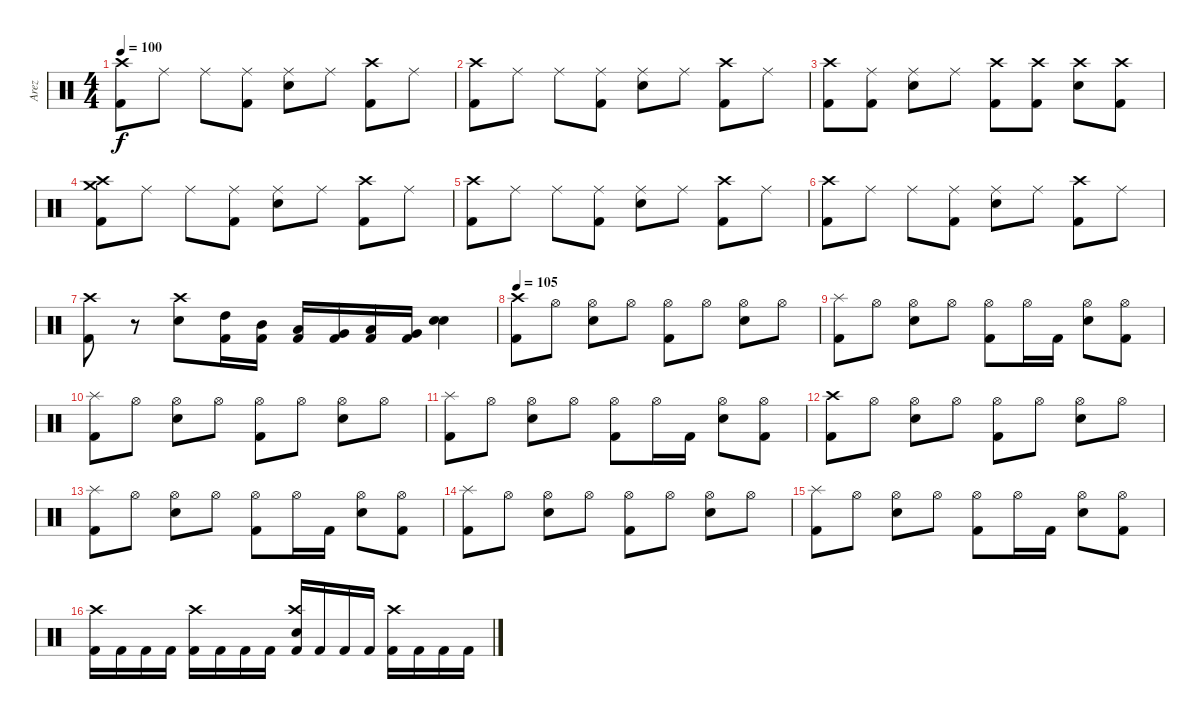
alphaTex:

\track ("Arez" "Arez") {instrument percussion}
\staff {score}
\articulation defaults
\ts (4 4)
\tempo 100
\clef neutral
\ks c
("Kick (hit) 2" "Crash high (hit)").8{dy f} "Ride (middle)".8 "Ride (middle)".8 ("Ride (middle)" "Kick (hit) 2").8 ("Electric Snare (hit)" "Ride (middle)").8 "Ride (middle)".8 ("Kick (hit) 2" "Crash high (hit)").8 "Ride (middle)".8 |
("Kick (hit) 2" "Crash high (hit)").8 "Ride (middle)".8 "Ride (middle)".8 ("Ride (middle)" "Kick (hit) 2").8 ("Electric Snare (hit)" "Ride (middle)").8 "Ride (middle)".8 ("Kick (hit) 2" "Crash high (hit)").8 "Ride (middle)".8 |
("Kick (hit) 2" "Crash high (hit)").8 ("Ride (middle)" "Kick (hit) 2").8 ("Ride (middle)" "Electric Snare (hit)").8 "Ride (middle)".8 ("Kick (hit) 2" "Crash high (hit)").8 ("Crash high (hit)" "Kick (hit) 2").8 ("Electric Snare (hit)" "Crash high (hit)").8 ("Crash high (hit)" "Kick (hit) 2").8 |
("Crash high (hit)" "Kick (hit) 2" "Crash medium (hit)").8 "Ride (middle)".8 "Ride (middle)".8 ("Ride (middle)" "Kick (hit) 2").8 ("Electric Snare (hit)" "Ride (middle)").8 "Ride (middle)".8 ("Kick (hit) 2" "Crash high (hit)").8 "Ride (middle)".8 |
("Kick (hit) 2" "Crash high (hit)").8 "Ride (middle)".8 "Ride (middle)".8 ("Ride (middle)" "Kick (hit) 2").8 ("Electric Snare (hit)" "Ride (middle)").8 "Ride (middle)".8 ("Kick (hit) 2" "Crash high (hit)").8 "Ride (middle)".8 |
("Kick (hit) 2" "Crash high (hit)").8 "Ride (middle)".8 "Ride (middle)".8 ("Ride (middle)" "Kick (hit) 2").8 ("Electric Snare (hit)" "Ride (middle)").8 "Ride (middle)".8 ("Kick (hit) 2" "Crash high (hit)").8 "Ride (middle)".8 |
("Kick (hit) 2" "Crash high (hit)").8 r.8 ("Crash high (hit)" "Electric Snare (hit)").8 ("High Tom (hit)" "Kick (hit) 2").16 ("Mid Tom (hit)" "Kick (hit) 2").16 ("Low Tom (hit)" "Kick (hit) 2").16 ("Very Low Tom (hit)" "Kick (hit) 2").16 ("Low Floor Tom (hit)" "Kick (hit) 2").16 ("Very Low Tom (hit)" "Kick (hit) 2").16 ("Electric Snare (hit)" "Electric Snare (hit)").4 |
\tempo 105
("Crash high (hit)" "Kick (hit) 2").8 "Hi-Hat (open)".8 ("Hi-Hat (open)" "Electric Snare (hit)").8 "Hi-Hat (open)".8 ("Hi-Hat (open)" "Kick (hit) 2").8 "Hi-Hat (open)".8 ("Electric Snare (hit)" "Hi-Hat (open)").8 "Hi-Hat (open)".8 |
("Splash (hit)" "Kick (hit) 2").8 "Hi-Hat (open)".8 ("Hi-Hat (open)" "Electric Snare (hit)").8 "Hi-Hat (open)".8 ("Hi-Hat (open)" "Kick (hit) 2").8 "Hi-Hat (open)".16 "Kick (hit) 2".16 ("Electric Snare (hit)" "Hi-Hat (open)").8 ("Kick (hit) 2" "Hi-Hat (open)").8 |
("Splash (hit)" "Kick (hit) 2").8 "Hi-Hat (open)".8 ("Hi-Hat (open)" "Electric Snare (hit)").8 "Hi-Hat (open)".8 ("Hi-Hat (open)" "Kick (hit) 2").8 "Hi-Hat (open)".8 ("Electric Snare (hit)" "Hi-Hat (open)").8 "Hi-Hat (open)".8 |
("Splash (hit)" "Kick (hit) 2").8 "Hi-Hat (open)".8 ("Hi-Hat (open)" "Electric Snare (hit)").8 "Hi-Hat (open)".8 ("Hi-Hat (open)" "Kick (hit) 2").8 "Hi-Hat (open)".16 "Kick (hit) 2".16 ("Electric Snare (hit)" "Hi-Hat (open)").8 ("Kick (hit) 2" "Hi-Hat (open)").8 |
("Crash high (hit)" "Kick (hit) 2").8 "Hi-Hat (open)".8 ("Hi-Hat (open)" "Electric Snare (hit)").8 "Hi-Hat (open)".8 ("Hi-Hat (open)" "Kick (hit) 2").8 "Hi-Hat (open)".8 ("Electric Snare (hit)" "Hi-Hat (open)").8 "Hi-Hat (open)".8 |
("Splash (hit)" "Kick (hit) 2").8 "Hi-Hat (open)".8 ("Hi-Hat (open)" "Electric Snare (hit)").8 "Hi-Hat (open)".8 ("Hi-Hat (open)" "Kick (hit) 2").8 "Hi-Hat (open)".16 "Kick (hit) 2".16 ("Electric Snare (hit)" "Hi-Hat (open)").8 ("Kick (hit) 2" "Hi-Hat (open)").8 |
("Splash (hit)" "Kick (hit) 2").8 "Hi-Hat (open)".8 ("Hi-Hat (open)" "Electric Snare (hit)").8 "Hi-Hat (open)".8 ("Hi-Hat (open)" "Kick (hit) 2").8 "Hi-Hat (open)".8 ("Electric Snare (hit)" "Hi-Hat (open)").8 "Hi-Hat (open)".8 |
("Splash (hit)" "Kick (hit) 2").8 "Hi-Hat (open)".8 ("Hi-Hat (open)" "Electric Snare (hit)").8 "Hi-Hat (open)".8 ("Hi-Hat (open)" "Kick (hit) 2").8 "Hi-Hat (open)".16 "Kick (hit) 2".16 ("Electric Snare (hit)" "Hi-Hat (open)").8 ("Kick (hit) 2" "Hi-Hat (open)").8 |
("Crash high (hit)" "Kick (hit) 2").16 "Kick (hit) 2".16 "Kick (hit) 2".16 "Kick (hit) 2".16 ("Kick (hit) 2" "Crash high (hit)").16 "Kick (hit) 2".16 "Kick (hit) 2".16 "Kick (hit) 2".16 ("Crash high (hit)" "Kick (hit) 2" "Electric Snare (hit)").16 "Kick (hit) 2".16 "Kick (hit) 2".16 "Kick (hit) 2".16 ("Kick (hit) 2" "Crash high (hit)").16 "Kick (hit) 2".16 "Kick (hit) 2".16 "Kick (hit) 2".16
